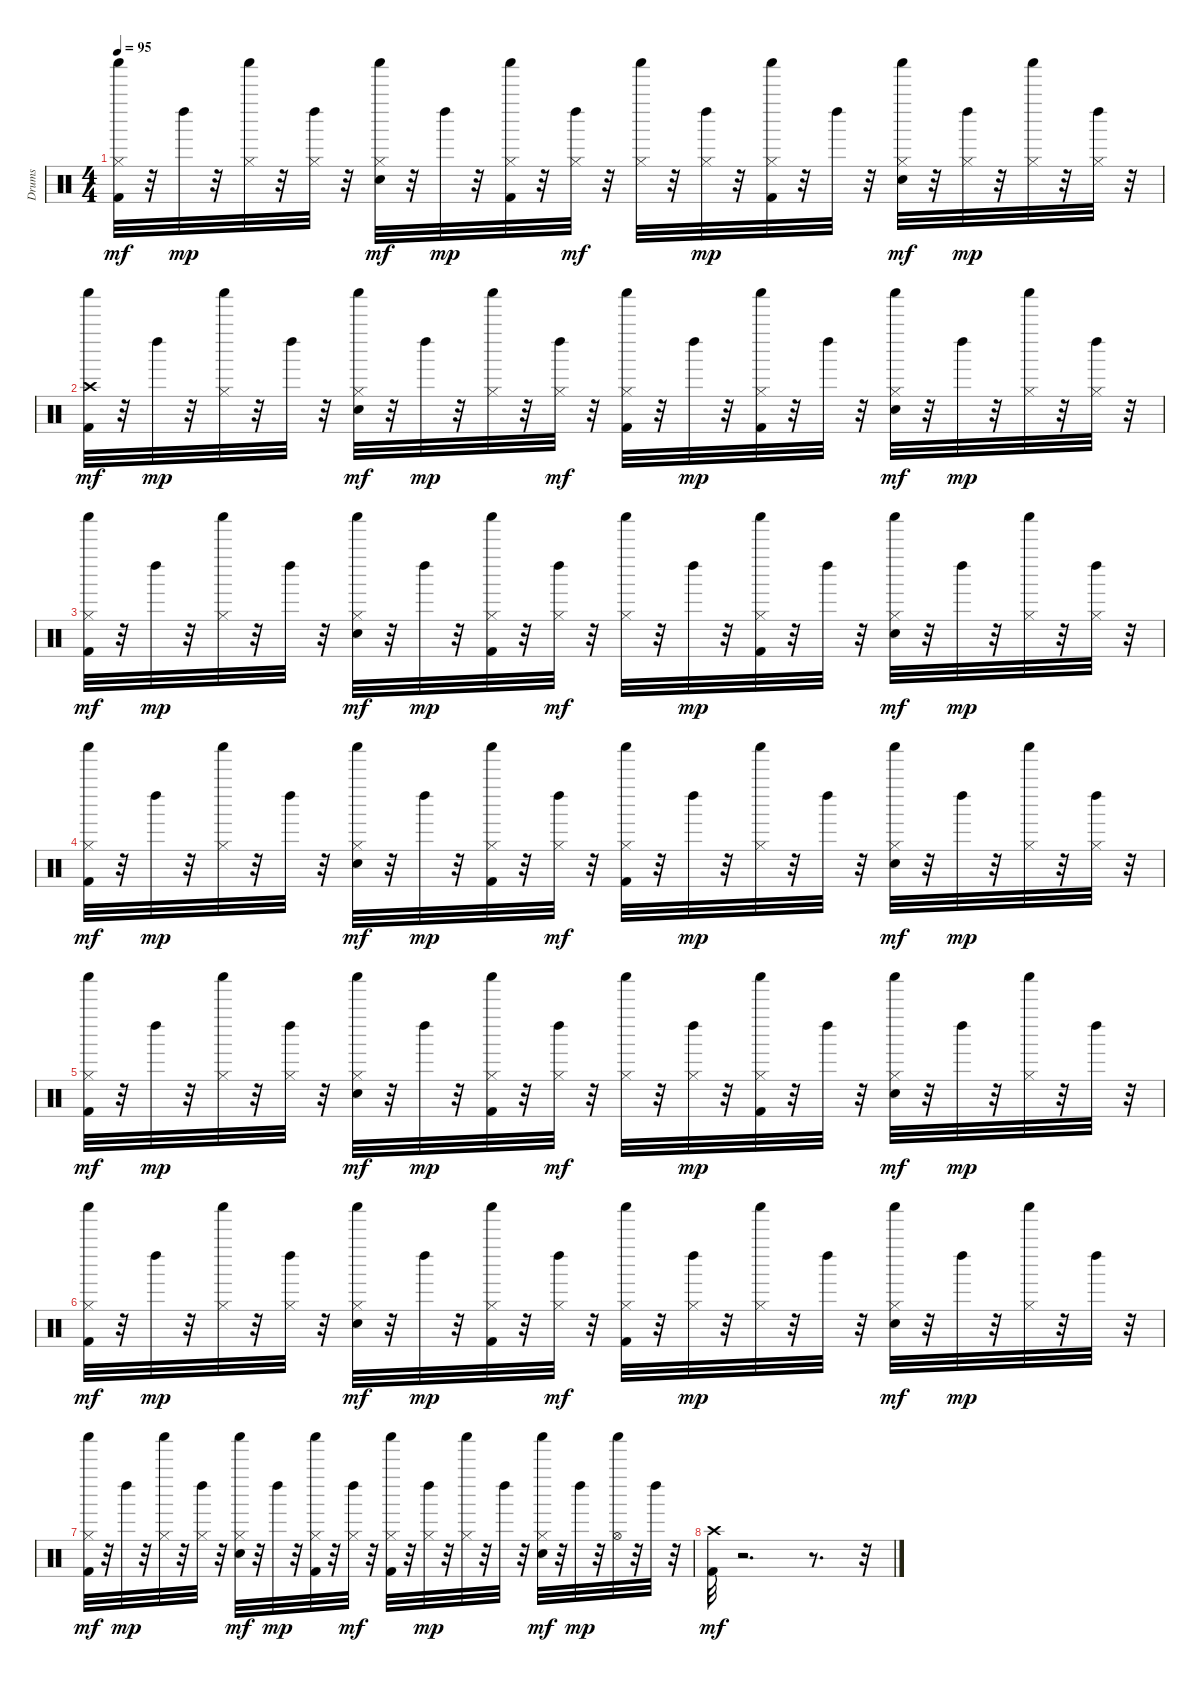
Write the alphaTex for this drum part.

\track ("Drums" "Drums") {instrument percussion}
\staff {score}
\articulation defaults
\ts (4 4)
\tempo 95
\clef neutral
\ks c
("Kick (hit) 2" "Hi-Hat (closed)" "Shaker (hit)").32{dy mf} r.32 "Left Maraca (hit)".32{dy mp} r.32 ("Hi-Hat (closed)" "Shaker (hit)").32 r.32 ("Hi-Hat (closed)" "Left Maraca (hit)").32 r.32 ("Electric Snare (hit)" "Hi-Hat (closed)" "Shaker (hit)").32{dy mf} r.32 "Left Maraca (hit)".32{dy mp} r.32 ("Kick (hit) 2" "Hi-Hat (closed)" "Shaker (hit)").32 r.32 ("Hi-Hat (closed)" "Left Maraca (hit)").32{dy mf} r.32 ("Hi-Hat (closed)" "Shaker (hit)").32 r.32 ("Hi-Hat (closed)" "Left Maraca (hit)").32{dy mp} r.32 ("Kick (hit) 2" "Hi-Hat (closed)" "Shaker (hit)").32 r.32 "Left Maraca (hit)".32 r.32 ("Electric Snare (hit)" "Hi-Hat (closed)" "Shaker (hit)").32{dy mf} r.32 ("Hi-Hat (closed)" "Left Maraca (hit)").32{dy mp} r.32 ("Hi-Hat (closed)" "Shaker (hit)").32 r.32 ("Hi-Hat (closed)" "Left Maraca (hit)").32 r.32 |
("Kick (hit) 2" "Crash high (hit)" "Shaker (hit)").32{dy mf} r.32 "Left Maraca (hit)".32{dy mp} r.32 ("Hi-Hat (closed)" "Shaker (hit)").32 r.32 "Left Maraca (hit)".32 r.32 ("Electric Snare (hit)" "Hi-Hat (closed)" "Shaker (hit)").32{dy mf} r.32 "Left Maraca (hit)".32{dy mp} r.32 ("Hi-Hat (closed)" "Shaker (hit)").32 r.32 ("Hi-Hat (closed)" "Left Maraca (hit)").32{dy mf} r.32 ("Kick (hit) 2" "Hi-Hat (closed)" "Shaker (hit)").32 r.32 "Left Maraca (hit)".32{dy mp} r.32 ("Kick (hit) 2" "Hi-Hat (closed)" "Shaker (hit)").32 r.32 "Left Maraca (hit)".32 r.32 ("Electric Snare (hit)" "Hi-Hat (closed)" "Shaker (hit)").32{dy mf} r.32 "Left Maraca (hit)".32{dy mp} r.32 ("Hi-Hat (closed)" "Shaker (hit)").32 r.32 ("Hi-Hat (closed)" "Left Maraca (hit)").32 r.32 |
("Kick (hit) 2" "Hi-Hat (closed)" "Shaker (hit)").32{dy mf} r.32 "Left Maraca (hit)".32{dy mp} r.32 ("Hi-Hat (closed)" "Shaker (hit)").32 r.32 "Left Maraca (hit)".32 r.32 ("Electric Snare (hit)" "Hi-Hat (closed)" "Shaker (hit)").32{dy mf} r.32 "Left Maraca (hit)".32{dy mp} r.32 ("Kick (hit) 2" "Hi-Hat (closed)" "Shaker (hit)").32 r.32 ("Hi-Hat (closed)" "Left Maraca (hit)").32{dy mf} r.32 ("Hi-Hat (closed)" "Shaker (hit)").32 r.32 "Left Maraca (hit)".32{dy mp} r.32 ("Kick (hit) 2" "Hi-Hat (closed)" "Shaker (hit)").32 r.32 "Left Maraca (hit)".32 r.32 ("Electric Snare (hit)" "Hi-Hat (closed)" "Shaker (hit)").32{dy mf} r.32 "Left Maraca (hit)".32{dy mp} r.32 ("Hi-Hat (closed)" "Shaker (hit)").32 r.32 ("Hi-Hat (closed)" "Left Maraca (hit)").32 r.32 |
("Kick (hit) 2" "Hi-Hat (closed)" "Shaker (hit)").32{dy mf} r.32 "Left Maraca (hit)".32{dy mp} r.32 ("Hi-Hat (closed)" "Shaker (hit)").32 r.32 "Left Maraca (hit)".32 r.32 ("Electric Snare (hit)" "Hi-Hat (closed)" "Shaker (hit)").32{dy mf} r.32 "Left Maraca (hit)".32{dy mp} r.32 ("Kick (hit) 2" "Hi-Hat (closed)" "Shaker (hit)").32 r.32 ("Hi-Hat (closed)" "Left Maraca (hit)").32{dy mf} r.32 ("Kick (hit) 2" "Hi-Hat (closed)" "Shaker (hit)").32 r.32 "Left Maraca (hit)".32{dy mp} r.32 ("Hi-Hat (closed)" "Shaker (hit)").32 r.32 "Left Maraca (hit)".32 r.32 ("Electric Snare (hit)" "Hi-Hat (closed)" "Shaker (hit)").32{dy mf} r.32 "Left Maraca (hit)".32{dy mp} r.32 ("Hi-Hat (closed)" "Shaker (hit)").32 r.32 ("Hi-Hat (closed)" "Left Maraca (hit)").32 r.32 |
("Kick (hit) 2" "Hi-Hat (closed)" "Shaker (hit)").32{dy mf} r.32 "Left Maraca (hit)".32{dy mp} r.32 ("Hi-Hat (closed)" "Shaker (hit)").32 r.32 ("Hi-Hat (closed)" "Left Maraca (hit)").32 r.32 ("Electric Snare (hit)" "Hi-Hat (closed)" "Shaker (hit)").32{dy mf} r.32 "Left Maraca (hit)".32{dy mp} r.32 ("Kick (hit) 2" "Hi-Hat (closed)" "Shaker (hit)").32 r.32 ("Hi-Hat (closed)" "Left Maraca (hit)").32{dy mf} r.32 ("Hi-Hat (closed)" "Shaker (hit)").32 r.32 ("Hi-Hat (closed)" "Left Maraca (hit)").32{dy mp} r.32 ("Kick (hit) 2" "Hi-Hat (closed)" "Shaker (hit)").32 r.32 "Left Maraca (hit)".32 r.32 ("Electric Snare (hit)" "Hi-Hat (closed)" "Shaker (hit)").32{dy mf} r.32 "Left Maraca (hit)".32{dy mp} r.32 ("Hi-Hat (closed)" "Shaker (hit)").32 r.32 "Left Maraca (hit)".32 r.32 |
("Kick (hit) 2" "Hi-Hat (closed)" "Shaker (hit)").32{dy mf} r.32 "Left Maraca (hit)".32{dy mp} r.32 ("Hi-Hat (closed)" "Shaker (hit)").32 r.32 ("Hi-Hat (closed)" "Left Maraca (hit)").32 r.32 ("Electric Snare (hit)" "Hi-Hat (closed)" "Shaker (hit)").32{dy mf} r.32 "Left Maraca (hit)".32{dy mp} r.32 ("Kick (hit) 2" "Hi-Hat (closed)" "Shaker (hit)").32 r.32 ("Hi-Hat (closed)" "Left Maraca (hit)").32{dy mf} r.32 ("Kick (hit) 2" "Hi-Hat (closed)" "Shaker (hit)").32 r.32 ("Hi-Hat (closed)" "Left Maraca (hit)").32{dy mp} r.32 ("Hi-Hat (closed)" "Shaker (hit)").32 r.32 "Left Maraca (hit)".32 r.32 ("Electric Snare (hit)" "Hi-Hat (closed)" "Shaker (hit)").32{dy mf} r.32 "Left Maraca (hit)".32{dy mp} r.32 ("Hi-Hat (closed)" "Shaker (hit)").32 r.32 "Left Maraca (hit)".32 r.32 |
("Kick (hit) 2" "Hi-Hat (closed)" "Shaker (hit)").32{dy mf} r.32 "Left Maraca (hit)".32{dy mp} r.32 ("Hi-Hat (closed)" "Shaker (hit)").32 r.32 ("Hi-Hat (closed)" "Left Maraca (hit)").32 r.32 ("Electric Snare (hit)" "Hi-Hat (closed)" "Shaker (hit)").32{dy mf} r.32 "Left Maraca (hit)".32{dy mp} r.32 ("Kick (hit) 2" "Hi-Hat (closed)" "Shaker (hit)").32 r.32 ("Hi-Hat (closed)" "Left Maraca (hit)").32{dy mf} r.32 ("Kick (hit) 2" "Hi-Hat (closed)" "Shaker (hit)").32 r.32 ("Hi-Hat (closed)" "Left Maraca (hit)").32{dy mp} r.32 ("Hi-Hat (closed)" "Shaker (hit)").32 r.32 "Left Maraca (hit)".32 r.32 ("Electric Snare (hit)" "Hi-Hat (closed)" "Shaker (hit)").32{dy mf} r.32 "Left Maraca (hit)".32{dy mp} r.32 ("Hi-Hat (open)" "Shaker (hit)").32 r.32 "Left Maraca (hit)".32 r.32 |
("Kick (hit) 2" "Crash high (hit)").32{dy mf} r.2{d} r.8{d} r.32
